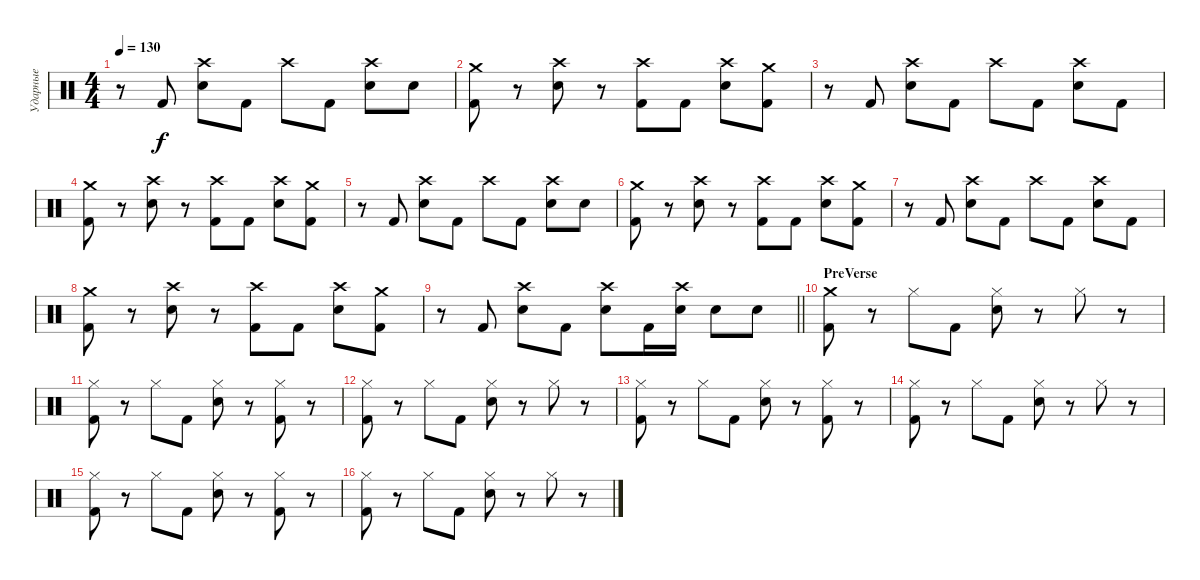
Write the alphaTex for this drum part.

\track ("Ударные" "Ударные") {instrument percussion}
\staff {score}
\articulation defaults
\ts (4 4)
\tempo 130
\clef neutral
\ks c
r.8{dy f} "Kick (hit) 2".8 ("Crash high (hit)" "Snare (hit) 2").8 "Kick (hit) 2".8 "Crash high (hit)".8 "Kick (hit) 2".8 ("Crash high (hit)" "Snare (hit) 2").8 "Snare (hit) 2".8 |
("Crash medium (hit)" "Kick (hit) 2").8 r.8 ("Crash high (hit)" "Snare (hit) 2").8 r.8 ("Crash high (hit)" "Kick (hit) 2").8 "Kick (hit) 2".8 ("Crash high (hit)" "Snare (hit) 2").8 ("Crash medium (hit)" "Kick (hit) 2").8 |
r.8 "Kick (hit) 2".8 ("Crash high (hit)" "Snare (hit) 2").8 "Kick (hit) 2".8 "Crash high (hit)".8 "Kick (hit) 2".8 ("Crash high (hit)" "Snare (hit) 2").8 "Kick (hit) 2".8 |
("Crash medium (hit)" "Kick (hit) 2").8 r.8 ("Crash high (hit)" "Snare (hit) 2").8 r.8 ("Crash high (hit)" "Kick (hit) 2").8 "Kick (hit) 2".8 ("Crash high (hit)" "Snare (hit) 2").8 ("Crash medium (hit)" "Kick (hit) 2").8 |
r.8 "Kick (hit) 2".8 ("Crash high (hit)" "Snare (hit) 2").8 "Kick (hit) 2".8 "Crash high (hit)".8 "Kick (hit) 2".8 ("Crash high (hit)" "Snare (hit) 2").8 "Snare (hit) 2".8 |
("Crash medium (hit)" "Kick (hit) 2").8 r.8 ("Crash high (hit)" "Snare (hit) 2").8 r.8 ("Crash high (hit)" "Kick (hit) 2").8 "Kick (hit) 2".8 ("Crash high (hit)" "Snare (hit) 2").8 ("Crash medium (hit)" "Kick (hit) 2").8 |
r.8 "Kick (hit) 2".8 ("Crash high (hit)" "Snare (hit) 2").8 "Kick (hit) 2".8 "Crash high (hit)".8 "Kick (hit) 2".8 ("Crash high (hit)" "Snare (hit) 2").8 "Kick (hit) 2".8 |
("Crash medium (hit)" "Kick (hit) 2").8 r.8 ("Crash high (hit)" "Snare (hit) 2").8 r.8 ("Crash high (hit)" "Kick (hit) 2").8 "Kick (hit) 2".8 ("Crash high (hit)" "Snare (hit) 2").8 ("Crash medium (hit)" "Kick (hit) 2").8 |
\barLineRight lightlight
r.8 "Kick (hit) 2".8 ("Crash high (hit)" "Snare (hit) 2").8 "Kick (hit) 2".8 ("Crash high (hit)" "Snare (hit) 2").8 "Kick (hit) 2".16 ("Crash high (hit)" "Snare (hit) 2").16 "Snare (hit) 2".8 "Snare (hit) 2".8 |
\section ("" "PreVerse")
("Crash medium (hit)" "Kick (hit) 2").8 r.8 "Hi-Hat (closed)".8 "Kick (hit) 2".8 ("Hi-Hat (closed)" "Snare (hit) 2").8 r.8 "Hi-Hat (closed)".8 r.8 |
("Hi-Hat (closed)" "Kick (hit) 2").8 r.8 "Hi-Hat (closed)".8 "Kick (hit) 2".8 ("Hi-Hat (closed)" "Snare (hit) 2").8 r.8 ("Hi-Hat (closed)" "Kick (hit) 2").8 r.8 |
("Hi-Hat (closed)" "Kick (hit) 2").8 r.8 "Hi-Hat (closed)".8 "Kick (hit) 2".8 ("Hi-Hat (closed)" "Snare (hit) 2").8 r.8 "Hi-Hat (closed)".8 r.8 |
("Hi-Hat (closed)" "Kick (hit) 2").8 r.8 "Hi-Hat (closed)".8 "Kick (hit) 2".8 ("Hi-Hat (closed)" "Snare (hit) 2").8 r.8 ("Hi-Hat (closed)" "Kick (hit) 2").8 r.8 |
("Hi-Hat (closed)" "Kick (hit) 2").8 r.8 "Hi-Hat (closed)".8 "Kick (hit) 2".8 ("Hi-Hat (closed)" "Snare (hit) 2").8 r.8 "Hi-Hat (closed)".8 r.8 |
("Hi-Hat (closed)" "Kick (hit) 2").8 r.8 "Hi-Hat (closed)".8 "Kick (hit) 2".8 ("Hi-Hat (closed)" "Snare (hit) 2").8 r.8 ("Hi-Hat (closed)" "Kick (hit) 2").8 r.8 |
("Hi-Hat (closed)" "Kick (hit) 2").8 r.8 "Hi-Hat (closed)".8 "Kick (hit) 2".8 ("Hi-Hat (closed)" "Snare (hit) 2").8 r.8 "Hi-Hat (closed)".8 r.8
